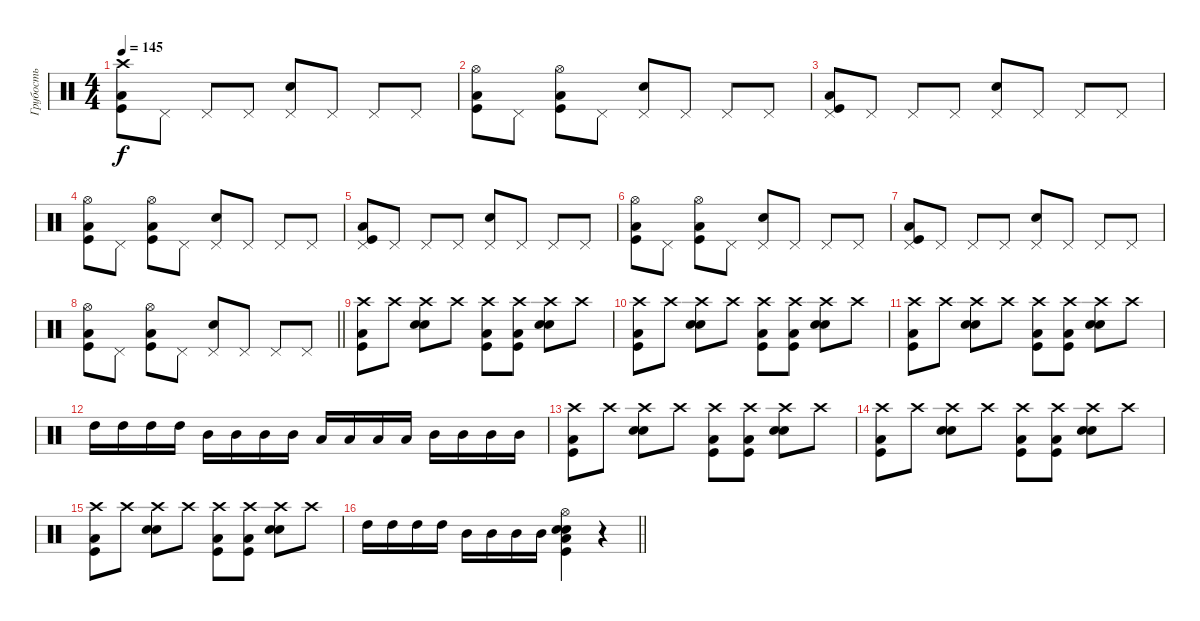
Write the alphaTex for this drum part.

\track ("Грубость" "Грубость") {instrument percussion}
\staff {score}
\articulation defaults
\ts (4 4)
\tempo 145
\clef neutral
\ks c
("Crash high (hit)" "Low Tom (hit)" "Kick (hit)").8{dy f} "Pedal Hi-Hat (hit)".8 "Pedal Hi-Hat (hit)".8 "Pedal Hi-Hat (hit)".8 ("Pedal Hi-Hat (hit)" "Electric Snare (hit)").8 "Pedal Hi-Hat (hit)".8 "Pedal Hi-Hat (hit)".8 "Pedal Hi-Hat (hit)".8 |
("Hi-Hat (open)" "Low Tom (hit)" "Kick (hit)").8 "Pedal Hi-Hat (hit)".8 ("Hi-Hat (open)" "Low Tom (hit)" "Kick (hit)").8 "Pedal Hi-Hat (hit)".8 ("Pedal Hi-Hat (hit)" "Electric Snare (hit)").8 "Pedal Hi-Hat (hit)".8 "Pedal Hi-Hat (hit)".8 "Pedal Hi-Hat (hit)".8 |
("Pedal Hi-Hat (hit)" "Low Tom (hit)" "Kick (hit)").8 "Pedal Hi-Hat (hit)".8 "Pedal Hi-Hat (hit)".8 "Pedal Hi-Hat (hit)".8 ("Pedal Hi-Hat (hit)" "Electric Snare (hit)").8 "Pedal Hi-Hat (hit)".8 "Pedal Hi-Hat (hit)".8 "Pedal Hi-Hat (hit)".8 |
("Hi-Hat (open)" "Low Tom (hit)" "Kick (hit)").8 "Pedal Hi-Hat (hit)".8 ("Hi-Hat (open)" "Low Tom (hit)" "Kick (hit)").8 "Pedal Hi-Hat (hit)".8 ("Pedal Hi-Hat (hit)" "Electric Snare (hit)").8 "Pedal Hi-Hat (hit)".8 "Pedal Hi-Hat (hit)".8 "Pedal Hi-Hat (hit)".8 |
("Pedal Hi-Hat (hit)" "Low Tom (hit)" "Kick (hit)").8 "Pedal Hi-Hat (hit)".8 "Pedal Hi-Hat (hit)".8 "Pedal Hi-Hat (hit)".8 ("Pedal Hi-Hat (hit)" "Electric Snare (hit)").8 "Pedal Hi-Hat (hit)".8 "Pedal Hi-Hat (hit)".8 "Pedal Hi-Hat (hit)".8 |
("Hi-Hat (open)" "Low Tom (hit)" "Kick (hit)").8 "Pedal Hi-Hat (hit)".8 ("Hi-Hat (open)" "Low Tom (hit)" "Kick (hit)").8 "Pedal Hi-Hat (hit)".8 ("Pedal Hi-Hat (hit)" "Electric Snare (hit)").8 "Pedal Hi-Hat (hit)".8 "Pedal Hi-Hat (hit)".8 "Pedal Hi-Hat (hit)".8 |
("Pedal Hi-Hat (hit)" "Low Tom (hit)" "Kick (hit)").8 "Pedal Hi-Hat (hit)".8 "Pedal Hi-Hat (hit)".8 "Pedal Hi-Hat (hit)".8 ("Pedal Hi-Hat (hit)" "Electric Snare (hit)").8 "Pedal Hi-Hat (hit)".8 "Pedal Hi-Hat (hit)".8 "Pedal Hi-Hat (hit)".8 |
\barLineRight lightlight
("Hi-Hat (open)" "Low Tom (hit)" "Kick (hit)").8 "Pedal Hi-Hat (hit)".8 ("Hi-Hat (open)" "Low Tom (hit)" "Kick (hit)").8 "Pedal Hi-Hat (hit)".8 ("Pedal Hi-Hat (hit)" "Electric Snare (hit)").8 "Pedal Hi-Hat (hit)".8 "Pedal Hi-Hat (hit)".8 "Pedal Hi-Hat (hit)".8 |
("Crash high (hit)" "Low Tom (hit)" "Kick (hit)").8 "Crash high (hit)".8 ("Crash high (hit)" "Electric Snare (hit)" "Snare (hit) 2").8 "Crash high (hit)".8 ("Crash high (hit)" "Low Tom (hit)" "Kick (hit)").8 ("Crash high (hit)" "Low Tom (hit)" "Kick (hit)").8 ("Crash high (hit)" "Electric Snare (hit)" "Snare (hit) 2").8 "Crash high (hit)".8 |
("Crash high (hit)" "Low Tom (hit)" "Kick (hit)").8 "Crash high (hit)".8 ("Crash high (hit)" "Electric Snare (hit)" "Snare (hit) 2").8 "Crash high (hit)".8 ("Crash high (hit)" "Low Tom (hit)" "Kick (hit)").8 ("Crash high (hit)" "Low Tom (hit)" "Kick (hit)").8 ("Crash high (hit)" "Electric Snare (hit)" "Snare (hit) 2").8 "Crash high (hit)".8 |
("Crash high (hit)" "Low Tom (hit)" "Kick (hit)").8 "Crash high (hit)".8 ("Crash high (hit)" "Electric Snare (hit)" "Snare (hit) 2").8 "Crash high (hit)".8 ("Crash high (hit)" "Low Tom (hit)" "Kick (hit)").8 ("Crash high (hit)" "Low Tom (hit)" "Kick (hit)").8 ("Crash high (hit)" "Electric Snare (hit)" "Snare (hit) 2").8 "Crash high (hit)".8 |
"High Tom (hit)".16 "High Tom (hit)".16 "High Tom (hit)".16 "High Tom (hit)".16 "Mid Tom (hit)".16 "Mid Tom (hit)".16 "Mid Tom (hit)".16 "Mid Tom (hit)".16 "Low Tom (hit)".16 "Low Tom (hit)".16 "Low Tom (hit)".16 "Low Tom (hit)".16 "Mid Tom (hit)".16 "Mid Tom (hit)".16 "Mid Tom (hit)".16 "Mid Tom (hit)".16 |
("Crash high (hit)" "Low Tom (hit)" "Kick (hit)").8 "Crash high (hit)".8 ("Crash high (hit)" "Electric Snare (hit)" "Snare (hit) 2").8 "Crash high (hit)".8 ("Crash high (hit)" "Low Tom (hit)" "Kick (hit)").8 ("Crash high (hit)" "Low Tom (hit)" "Kick (hit)").8 ("Crash high (hit)" "Electric Snare (hit)" "Snare (hit) 2").8 "Crash high (hit)".8 |
("Crash high (hit)" "Low Tom (hit)" "Kick (hit)").8 "Crash high (hit)".8 ("Crash high (hit)" "Electric Snare (hit)" "Snare (hit) 2").8 "Crash high (hit)".8 ("Crash high (hit)" "Low Tom (hit)" "Kick (hit)").8 ("Crash high (hit)" "Low Tom (hit)" "Kick (hit)").8 ("Crash high (hit)" "Electric Snare (hit)" "Snare (hit) 2").8 "Crash high (hit)".8 |
("Crash high (hit)" "Low Tom (hit)" "Kick (hit)").8 "Crash high (hit)".8 ("Crash high (hit)" "Electric Snare (hit)" "Snare (hit) 2").8 "Crash high (hit)".8 ("Crash high (hit)" "Low Tom (hit)" "Kick (hit)").8 ("Crash high (hit)" "Low Tom (hit)" "Kick (hit)").8 ("Crash high (hit)" "Electric Snare (hit)" "Snare (hit) 2").8 "Crash high (hit)".8 |
\barLineRight lightlight "High Tom (hit)".16 "High Tom (hit)".16 "High Tom (hit)".16 "High Tom (hit)".16 "Mid Tom (hit)".16 "Mid Tom (hit)".16 "Mid Tom (hit)".16 "Mid Tom (hit)".16
("Hi-Hat (open)" "Electric Snare (hit)" "Snare (hit) 2" "Low Tom (hit)" "Kick (hit)").4 r.4
